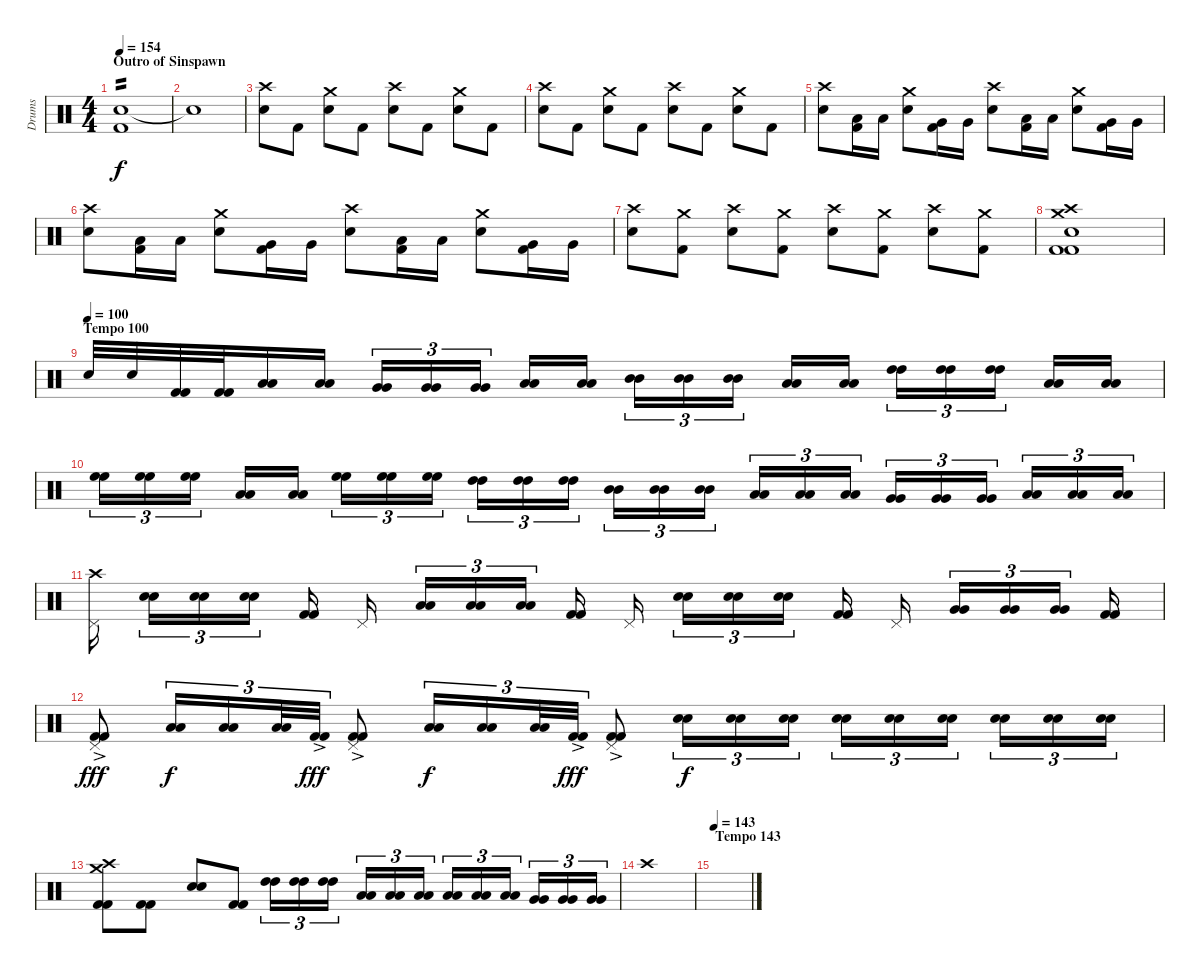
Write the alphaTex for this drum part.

\track ("Drums" "Drums") {instrument percussion}
\staff {score}
\articulation defaults
\ts (4 4)
\section ("" "Outro of Sinspawn")
\tempo 154
\clef neutral
\ks c
("Electric Snare (hit)" "Kick (hit) 2").1{tp 2 dy f} |
"Snare (hit)"{t}.1 |
("Crash high (hit)" "Electric Snare (hit)").8 "Kick (hit) 2".8 ("Crash medium (hit)" "Electric Snare (hit)").8 "Kick (hit) 2".8 ("Crash high (hit)" "Electric Snare (hit)").8 "Kick (hit) 2".8 ("Crash medium (hit)" "Electric Snare (hit)").8 "Kick (hit) 2".8 |
("Crash high (hit)" "Electric Snare (hit)").8 "Kick (hit) 2".8 ("Crash medium (hit)" "Electric Snare (hit)").8 "Kick (hit) 2".8 ("Crash high (hit)" "Electric Snare (hit)").8 "Kick (hit) 2".8 ("Crash medium (hit)" "Electric Snare (hit)").8 "Kick (hit) 2".8 |
("Crash high (hit)" "Electric Snare (hit)").8 ("Low Tom (hit)" "Kick (hit) 2").16 "Low Tom (hit)".16 ("Crash medium (hit)" "Electric Snare (hit)").8 ("Very Low Tom (hit)" "Kick (hit) 2").16 "Very Low Tom (hit)".16 ("Crash high (hit)" "Electric Snare (hit)").8 ("Low Tom (hit)" "Kick (hit) 2").16 "Low Tom (hit)".16 ("Crash medium (hit)" "Electric Snare (hit)").8 ("Very Low Tom (hit)" "Kick (hit) 2").16 "Very Low Tom (hit)".16 |
("Crash high (hit)" "Electric Snare (hit)").8 ("Low Tom (hit)" "Kick (hit) 2").16 "Low Tom (hit)".16 ("Crash medium (hit)" "Electric Snare (hit)").8 ("Very Low Tom (hit)" "Kick (hit) 2").16 "Very Low Tom (hit)".16 ("Crash high (hit)" "Electric Snare (hit)").8 ("Low Tom (hit)" "Kick (hit) 2").16 "Low Tom (hit)".16 ("Crash medium (hit)" "Electric Snare (hit)").8 ("Very Low Tom (hit)" "Kick (hit) 2").16 "Very Low Tom (hit)".16 |
("Crash high (hit)" "Electric Snare (hit)").8 ("Crash medium (hit)" "Kick (hit) 2").8 ("Crash high (hit)" "Electric Snare (hit)").8 ("Crash medium (hit)" "Kick (hit) 2").8 ("Crash high (hit)" "Electric Snare (hit)").8 ("Crash medium (hit)" "Kick (hit) 2").8 ("Crash high (hit)" "Electric Snare (hit)").8 ("Crash medium (hit)" "Kick (hit) 2").8 |
("Crash high (hit)" "Crash medium (hit)" "Electric Snare (hit)" "Kick (hit) 2" "Kick (hit) 2").1 |
\section ("" "Tempo 100")
\tempo (100)
"Electric Snare (hit)".32 "Snare (hit) 2".32 ("Kick (hit) 2" "Kick (hit) 2").32 ("Kick (hit) 2" "Kick (hit) 2").32 ("Low Floor Tom (hit)" "Low Floor Tom (hit)").16 ("Low Floor Tom (hit)" "Low Floor Tom (hit)").16 ("Very Low Tom (hit)" "Very Low Tom (hit)").16{tu (3 2)} ("Very Low Tom (hit)" "Very Low Tom (hit)").16{tu (3 2)} ("Very Low Tom (hit)" "Very Low Tom (hit)").16{tu (3 2)} ("Low Tom (hit)" "Low Tom (hit)").16 ("Low Tom (hit)" "Low Tom (hit)").16 ("Mid Tom (hit)" "Mid Tom (hit)").16{tu (3 2)} ("Mid Tom (hit)" "Mid Tom (hit)").16{tu (3 2)} ("Mid Tom (hit)" "Mid Tom (hit)").16{tu (3 2)} ("Low Tom (hit)" "Low Tom (hit)").16 ("Low Tom (hit)" "Low Tom (hit)").16 ("High Tom (hit)" "High Tom (hit)").16{tu (3 2)} ("High Tom (hit)" "High Tom (hit)").16{tu (3 2)} ("High Tom (hit)" "High Tom (hit)").16{tu (3 2)} ("Low Tom (hit)" "Low Tom (hit)").16 ("Low Tom (hit)" "Low Tom (hit)").16 |
("High Floor Tom (hit)" "High Floor Tom (hit)").16{tu (3 2)} ("High Floor Tom (hit)" "High Floor Tom (hit)").16{tu (3 2)} ("High Floor Tom (hit)" "High Floor Tom (hit)").16{tu (3 2)} ("Low Tom (hit)" "Low Tom (hit)").16 ("Low Tom (hit)" "Low Tom (hit)").16 ("High Floor Tom (hit)" "High Floor Tom (hit)").16{tu (3 2)} ("High Floor Tom (hit)" "High Floor Tom (hit)").16{tu (3 2)} ("High Floor Tom (hit)" "High Floor Tom (hit)").16{tu (3 2)} ("High Tom (hit)" "High Tom (hit)").16{tu (3 2)} ("High Tom (hit)" "High Tom (hit)").16{tu (3 2)} ("High Tom (hit)" "High Tom (hit)").16{tu (3 2)} ("Mid Tom (hit)" "Mid Tom (hit)").16{tu (3 2)} ("Mid Tom (hit)" "Mid Tom (hit)").16{tu (3 2)} ("Mid Tom (hit)" "Mid Tom (hit)").16{tu (3 2)} ("Low Tom (hit)" "Low Tom (hit)").16{tu (3 2)} ("Low Tom (hit)" "Low Tom (hit)").16{tu (3 2)} ("Low Tom (hit)" "Low Tom (hit)").16{tu (3 2)} ("Very Low Tom (hit)" "Very Low Tom (hit)").16{tu (3 2)} ("Very Low Tom (hit)" "Very Low Tom (hit)").16{tu (3 2)} ("Very Low Tom (hit)" "Very Low Tom (hit)").16{tu (3 2)} ("Low Floor Tom (hit)" "Low Floor Tom (hit)").16{tu (3 2)} ("Low Floor Tom (hit)" "Low Floor Tom (hit)").16{tu (3 2)} ("Low Floor Tom (hit)" "Low Floor Tom (hit)").16{tu (3 2)} |
("Crash high (hit)" "Pedal Hi-Hat (hit)").16 ("Electric Snare (hit)" "Electric Snare (hit)").16{tu (3 2)} ("Electric Snare (hit)" "Electric Snare (hit)").16{tu (3 2)} ("Electric Snare (hit)" "Electric Snare (hit)").16{tu (3 2)} ("Kick (hit) 2" "Kick (hit) 2").16 "Pedal Hi-Hat (hit)".16 ("Low Floor Tom (hit)" "Low Floor Tom (hit)").16{tu (3 2)} ("Low Floor Tom (hit)" "Low Floor Tom (hit)").16{tu (3 2)} ("Low Floor Tom (hit)" "Low Floor Tom (hit)").16{tu (3 2)} ("Kick (hit) 2" "Kick (hit) 2").16 "Pedal Hi-Hat (hit)".16 ("Snare (hit) 2" "Snare (hit) 2").16{tu (3 2)} ("Snare (hit) 2" "Snare (hit) 2").16{tu (3 2)} ("Snare (hit) 2" "Snare (hit) 2").16{tu (3 2)} ("Kick (hit) 2" "Kick (hit) 2").16 "Pedal Hi-Hat (hit)".16 ("Very Low Tom (hit)" "Very Low Tom (hit)").16{tu (3 2)} ("Very Low Tom (hit)" "Very Low Tom (hit)").16{tu (3 2)} ("Very Low Tom (hit)" "Very Low Tom (hit)").16{tu (3 2)} ("Kick (hit) 2" "Kick (hit) 2").16 |
("Pedal Hi-Hat (hit)" "Kick (hit) 2" "Kick (hit) 2"{ac}).8{dy fff} ("Low Floor Tom (hit)" "Low Floor Tom (hit)").16{tu (3 2) dy f} ("Low Floor Tom (hit)" "Low Floor Tom (hit)").16{tu (3 2)} ("Low Floor Tom (hit)" "Low Floor Tom (hit)").32{tu (3 2)} ("Kick (hit) 2" "Kick (hit) 2"{ac}).32{tu (3 2) dy fff} ("Pedal Hi-Hat (hit)" "Kick (hit) 2" "Kick (hit) 2"{ac}).8 ("Low Tom (hit)" "Low Tom (hit)").16{tu (3 2) dy f} ("Low Tom (hit)" "Low Tom (hit)").16{tu (3 2)} ("Low Tom (hit)" "Low Tom (hit)").32{tu (3 2)} ("Kick (hit) 2" "Kick (hit) 2"{ac}).32{tu (3 2) dy fff} ("Pedal Hi-Hat (hit)" "Kick (hit) 2" "Kick (hit) 2"{ac}).8 ("Electric Snare (hit)" "Electric Snare (hit)").16{tu (3 2) dy f} ("Electric Snare (hit)" "Electric Snare (hit)").16{tu (3 2)} ("Electric Snare (hit)" "Electric Snare (hit)").16{tu (3 2)} ("Snare (hit) 2" "Snare (hit) 2").16{tu (3 2)} ("Snare (hit) 2" "Snare (hit) 2").16{tu (3 2)} ("Snare (hit) 2" "Snare (hit) 2").16{tu (3 2)} ("Snare (hit) 2" "Snare (hit) 2").16{tu (3 2)} ("Snare (hit) 2" "Snare (hit) 2").16{tu (3 2)} ("Snare (hit) 2" "Snare (hit) 2").16{tu (3 2)} |
("Crash high (hit)" "Crash medium (hit)" "Kick (hit) 2" "Kick (hit) 2").8 ("Kick (hit) 2" "Kick (hit) 2").8 ("Electric Snare (hit)" "Electric Snare (hit)").8 ("Kick (hit) 2" "Kick (hit) 2").8 ("High Tom (hit)" "High Tom (hit)").16{tu (3 2)} ("High Tom (hit)" "High Tom (hit)").16{tu (3 2)} ("High Tom (hit)" "High Tom (hit)").16{tu (3 2)} ("Low Floor Tom (hit)" "Low Floor Tom (hit)").16{tu (3 2)} ("Low Floor Tom (hit)" "Low Floor Tom (hit)").16{tu (3 2)} ("Low Floor Tom (hit)" "Low Floor Tom (hit)").16{tu (3 2)} ("Low Tom (hit)" "Low Tom (hit)").16{tu (3 2)} ("Low Tom (hit)" "Low Tom (hit)").16{tu (3 2)} ("Low Tom (hit)" "Low Tom (hit)").16{tu (3 2)} ("Very Low Tom (hit)" "Very Low Tom (hit)").16{tu (3 2)} ("Very Low Tom (hit)" "Very Low Tom (hit)").16{tu (3 2)} ("Very Low Tom (hit)" "Very Low Tom (hit)").16{tu (3 2)} |
"Crash high (hit)".1 |
\section ("" "Tempo 143")
\tempo 143
